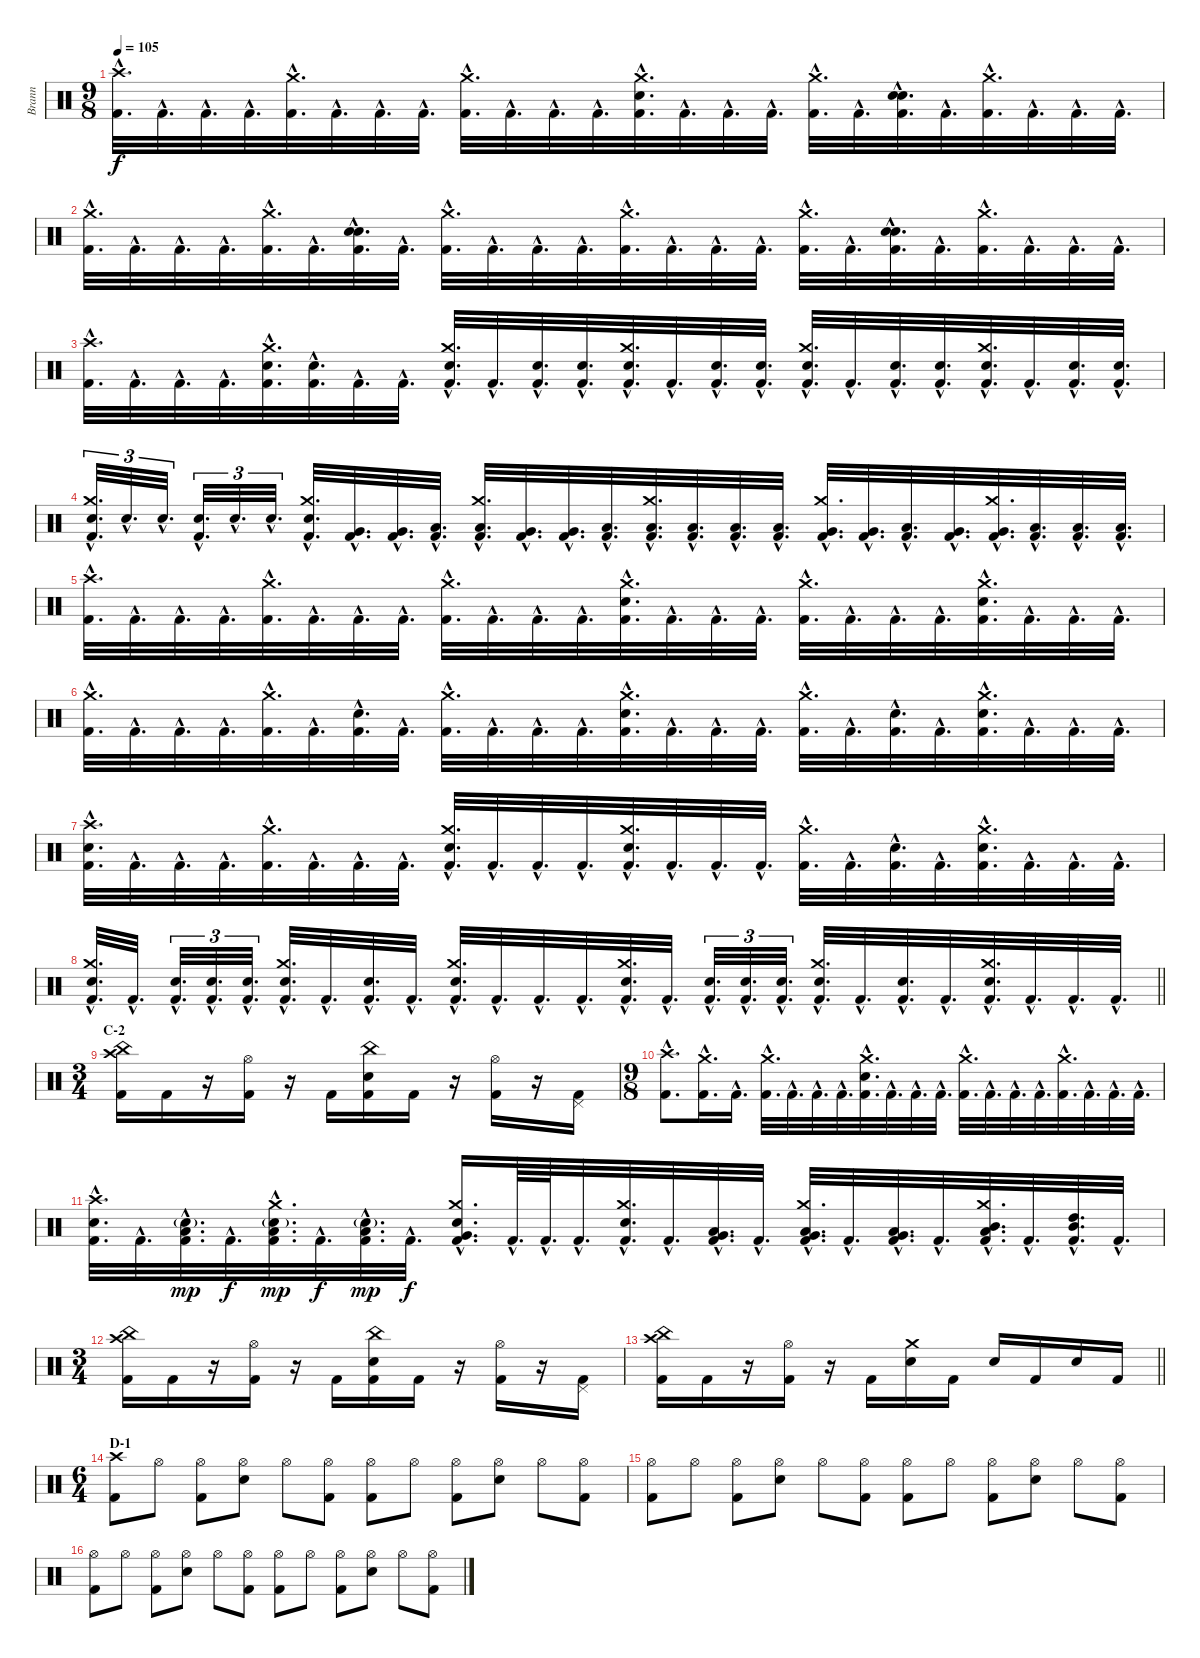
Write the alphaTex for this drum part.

\track ("Brann" "Brann") {instrument percussion}
\staff {score}
\articulation defaults
\ts (9 8)
\tempo 105
\clef neutral
\ks c
("Crash high (hit)"{hac} "Kick (hit) 2"{hac}).32{d dy f} "Kick (hit) 2"{hac}.32{d} "Kick (hit) 2"{hac}.32{d} "Kick (hit) 2"{hac}.32{d} ("Crash medium (hit)"{hac} "Kick (hit) 2"{hac}).32{d} "Kick (hit) 2"{hac}.32{d} "Kick (hit) 2"{hac}.32{d} "Kick (hit) 2"{hac}.32{d} ("Crash medium (hit)"{hac} "Kick (hit) 2"{hac}).32{d} "Kick (hit) 2"{hac}.32{d} "Kick (hit) 2"{hac}.32{d} "Kick (hit) 2"{hac}.32{d} ("Crash medium (hit)"{hac} "Snare (hit) 2"{hac} "Kick (hit) 2"{hac}).32{d} "Kick (hit) 2"{hac}.32{d} "Kick (hit) 2"{hac}.32{d} "Kick (hit) 2"{hac}.32{d} ("Crash medium (hit)"{hac} "Kick (hit) 2"{hac}).32{d} "Kick (hit) 2"{hac}.32{d} ("Electric Snare (hit)"{hac} "Snare (hit) 2"{hac} "Kick (hit) 2"{hac}).32{d} "Kick (hit) 2"{hac}.32{d} ("Crash medium (hit)"{hac} "Kick (hit) 2"{hac}).32{d} "Kick (hit) 2"{hac}.32{d} "Kick (hit) 2"{hac}.32{d} "Kick (hit) 2"{hac}.32{d} |
("Crash medium (hit)"{hac} "Kick (hit) 2"{hac}).32{d} "Kick (hit) 2"{hac}.32{d} "Kick (hit) 2"{hac}.32{d} "Kick (hit) 2"{hac}.32{d} ("Crash medium (hit)"{hac} "Kick (hit) 2"{hac}).32{d} "Kick (hit) 2"{hac}.32{d} ("Electric Snare (hit)"{hac} "Snare (hit) 2"{hac} "Kick (hit) 2"{hac}).32{d} "Kick (hit) 2"{hac}.32{d} ("Crash medium (hit)"{hac} "Kick (hit) 2"{hac}).32{d} "Kick (hit) 2"{hac}.32{d} "Kick (hit) 2"{hac}.32{d} "Kick (hit) 2"{hac}.32{d} ("Crash medium (hit)"{hac} "Kick (hit) 2"{hac}).32{d} "Kick (hit) 2"{hac}.32{d} "Kick (hit) 2"{hac}.32{d} "Kick (hit) 2"{hac}.32{d} ("Crash medium (hit)"{hac} "Kick (hit) 2"{hac}).32{d} "Kick (hit) 2"{hac}.32{d} ("Electric Snare (hit)"{hac} "Snare (hit) 2"{hac} "Kick (hit) 2"{hac}).32{d} "Kick (hit) 2"{hac}.32{d} ("Crash medium (hit)"{hac} "Kick (hit) 2"{hac}).32{d} "Kick (hit) 2"{hac}.32{d} "Kick (hit) 2"{hac}.32{d} "Kick (hit) 2"{hac}.32{d} |
("Crash high (hit)"{hac} "Kick (hit) 2"{hac}).32{d} "Kick (hit) 2"{hac}.32{d} "Kick (hit) 2"{hac}.32{d} "Kick (hit) 2"{hac}.32{d} ("Crash medium (hit)"{hac} "Snare (hit) 2"{hac} "Kick (hit) 2"{hac}).32{d} ("Snare (hit) 2"{hac} "Kick (hit) 2"{hac}).32{d} "Kick (hit) 2"{hac}.32{d} "Kick (hit) 2"{hac}.32{d} ("Crash medium (hit)"{hac} "Snare (hit) 2"{hac} "Kick (hit) 2"{hac}).32{d} "Kick (hit) 2"{hac}.32{d} ("Electric Snare (hit)"{hac} "Kick (hit) 2"{hac}).32{d} ("Electric Snare (hit)"{hac} "Kick (hit) 2"{hac}).32{d} ("Crash medium (hit)"{hac} "Electric Snare (hit)"{hac} "Kick (hit) 2"{hac}).32{d} "Kick (hit) 2"{hac}.32{d} ("Electric Snare (hit)"{hac} "Kick (hit) 2"{hac}).32{d} ("Snare (hit) 2"{hac} "Kick (hit) 2"{hac}).32{d} ("Crash medium (hit)"{hac} "Snare (hit) 2"{hac} "Kick (hit) 2"{hac}).32{d} "Kick (hit) 2"{hac}.32{d} ("Snare (hit) 2"{hac} "Kick (hit) 2"{hac}).32{d} ("Snare (hit) 2"{hac} "Kick (hit) 2"{hac}).32{d} ("Crash medium (hit)"{hac} "Snare (hit) 2"{hac} "Kick (hit) 2"{hac}).32{d} "Kick (hit) 2"{hac}.32{d} ("Snare (hit) 2"{hac} "Kick (hit) 2"{hac}).32{d} ("Snare (hit) 2"{hac} "Kick (hit) 2"{hac}).32{d} |
("Crash medium (hit)"{hac} "Snare (hit) 2"{hac} "Kick (hit) 2"{hac}).32{d tu (3 2)} "Snare (hit) 2"{hac}.32{d tu (3 2)} "Electric Snare (hit)"{hac}.32{d tu (3 2)} ("Electric Snare (hit)"{hac} "Kick (hit) 2"{hac}).32{d tu (3 2)} "Snare (hit) 2"{hac}.32{d tu (3 2)} "Snare (hit) 2"{hac}.32{d tu (3 2)} ("Crash medium (hit)"{hac} "Electric Snare (hit)"{hac} "Kick (hit) 2"{hac}).32{d} ("Very Low Tom (hit)"{hac} "Kick (hit) 2"{hac}).32{d} ("Very Low Tom (hit)"{hac} "Kick (hit) 2"{hac}).32{d} ("Low Tom (hit)"{hac} "Kick (hit) 2"{hac}).32{d} ("Crash medium (hit)"{hac} "Low Tom (hit)"{hac} "Kick (hit) 2"{hac}).32{d} ("Very Low Tom (hit)"{hac} "Kick (hit) 2"{hac}).32{d} ("Very Low Tom (hit)"{hac} "Kick (hit) 2"{hac}).32{d} ("Low Floor Tom (hit)"{hac} "Kick (hit) 2"{hac}).32{d} ("Crash medium (hit)"{hac} "Low Floor Tom (hit)"{hac} "Kick (hit) 2"{hac}).32{d} ("Low Floor Tom (hit)"{hac} "Kick (hit) 2"{hac}).32{d} ("Low Floor Tom (hit)"{hac} "Kick (hit) 2"{hac}).32{d} ("Low Tom (hit)"{hac} "Kick (hit) 2"{hac}).32{d} ("Crash medium (hit)"{hac} "Very Low Tom (hit)"{hac} "Kick (hit) 2"{hac}).32{d} ("Very Low Tom (hit)"{hac} "Kick (hit) 2"{hac}).32{d} ("Low Tom (hit)"{hac} "Kick (hit) 2"{hac}).32{d} ("Very Low Tom (hit)"{hac} "Kick (hit) 2"{hac}).32{d} ("Crash medium (hit)"{hac} "Very Low Tom (hit)"{hac} "Kick (hit) 2"{hac}).32{d} ("Low Floor Tom (hit)"{hac} "Kick (hit) 2"{hac}).32{d} ("Low Floor Tom (hit)"{hac} "Kick (hit) 2"{hac}).32{d} ("Low Floor Tom (hit)"{hac} "Kick (hit) 2"{hac}).32{d} |
("Crash high (hit)"{hac} "Kick (hit) 2"{hac}).32{d} "Kick (hit) 2"{hac}.32{d} "Kick (hit) 2"{hac}.32{d} "Kick (hit) 2"{hac}.32{d} ("Crash medium (hit)"{hac} "Kick (hit) 2"{hac}).32{d} "Kick (hit) 2"{hac}.32{d} "Kick (hit) 2"{hac}.32{d} "Kick (hit) 2"{hac}.32{d} ("Crash medium (hit)"{hac} "Kick (hit) 2"{hac}).32{d} "Kick (hit) 2"{hac}.32{d} "Kick (hit) 2"{hac}.32{d} "Kick (hit) 2"{hac}.32{d} ("Crash medium (hit)"{hac} "Snare (hit) 2"{hac} "Kick (hit) 2"{hac}).32{d} "Kick (hit) 2"{hac}.32{d} "Kick (hit) 2"{hac}.32{d} "Kick (hit) 2"{hac}.32{d} ("Crash medium (hit)"{hac} "Kick (hit) 2"{hac}).32{d} "Kick (hit) 2"{hac}.32{d} "Kick (hit) 2"{hac}.32{d} "Kick (hit) 2"{hac}.32{d} ("Crash medium (hit)"{hac} "Snare (hit) 2"{hac} "Kick (hit) 2"{hac}).32{d} "Kick (hit) 2"{hac}.32{d} "Kick (hit) 2"{hac}.32{d} "Kick (hit) 2"{hac}.32{d} |
("Crash medium (hit)"{hac} "Kick (hit) 2"{hac}).32{d} "Kick (hit) 2"{hac}.32{d} "Kick (hit) 2"{hac}.32{d} "Kick (hit) 2"{hac}.32{d} ("Crash medium (hit)"{hac} "Kick (hit) 2"{hac}).32{d} "Kick (hit) 2"{hac}.32{d} ("Snare (hit) 2"{hac} "Kick (hit) 2"{hac}).32{d} "Kick (hit) 2"{hac}.32{d} ("Crash medium (hit)"{hac} "Kick (hit) 2"{hac}).32{d} "Kick (hit) 2"{hac}.32{d} "Kick (hit) 2"{hac}.32{d} "Kick (hit) 2"{hac}.32{d} ("Crash medium (hit)"{hac} "Snare (hit) 2"{hac} "Kick (hit) 2"{hac}).32{d} "Kick (hit) 2"{hac}.32{d} "Kick (hit) 2"{hac}.32{d} "Kick (hit) 2"{hac}.32{d} ("Crash medium (hit)"{hac} "Kick (hit) 2"{hac}).32{d} "Kick (hit) 2"{hac}.32{d} ("Snare (hit) 2"{hac} "Kick (hit) 2"{hac}).32{d} "Kick (hit) 2"{hac}.32{d} ("Crash medium (hit)"{hac} "Snare (hit) 2"{hac} "Kick (hit) 2"{hac}).32{d} "Kick (hit) 2"{hac}.32{d} "Kick (hit) 2"{hac}.32{d} "Kick (hit) 2"{hac}.32{d} |
("Crash high (hit)"{hac} "Snare (hit) 2"{hac} "Kick (hit) 2"{hac}).32{d} "Kick (hit) 2"{hac}.32{d} "Kick (hit) 2"{hac}.32{d} "Kick (hit) 2"{hac}.32{d} ("Crash medium (hit)"{hac} "Kick (hit) 2"{hac}).32{d} "Kick (hit) 2"{hac}.32{d} "Kick (hit) 2"{hac}.32{d} "Kick (hit) 2"{hac}.32{d} ("Crash medium (hit)"{hac} "Snare (hit) 2"{hac} "Kick (hit) 2"{hac}).32{d} "Kick (hit) 2"{hac}.32{d} "Kick (hit) 2"{hac}.32{d} "Kick (hit) 2"{hac}.32{d} ("Crash medium (hit)"{hac} "Snare (hit) 2"{hac} "Kick (hit) 2"{hac}).32{d} "Kick (hit) 2"{hac}.32{d} "Kick (hit) 2"{hac}.32{d} "Kick (hit) 2"{hac}.32{d} ("Crash medium (hit)"{hac} "Kick (hit) 2"{hac}).32{d} "Kick (hit) 2"{hac}.32{d} ("Snare (hit) 2"{hac} "Kick (hit) 2"{hac}).32{d} "Kick (hit) 2"{hac}.32{d} ("Crash medium (hit)"{hac} "Snare (hit) 2"{hac} "Kick (hit) 2"{hac}).32{d} "Kick (hit) 2"{hac}.32{d} "Kick (hit) 2"{hac}.32{d} "Kick (hit) 2"{hac}.32{d} |
\barLineRight lightlight
("Crash medium (hit)"{hac} "Snare (hit) 2"{hac} "Kick (hit) 2"{hac}).32{d} "Kick (hit) 2"{hac}.32{d} ("Snare (hit) 2"{hac} "Kick (hit) 2"{hac}).32{d tu (3 2)} ("Electric Snare (hit)"{hac} "Kick (hit) 2"{hac}).32{d tu (3 2)} ("Snare (hit) 2"{hac} "Kick (hit) 2"{hac}).32{d tu (3 2)} ("Crash medium (hit)"{hac} "Snare (hit) 2"{hac} "Kick (hit) 2"{hac}).32{d} "Kick (hit) 2"{hac}.32{d} ("Snare (hit) 2"{hac} "Kick (hit) 2"{hac}).32{d} "Kick (hit) 2"{hac}.32{d} ("Crash medium (hit)"{hac} "Snare (hit) 2"{hac} "Kick (hit) 2"{hac}).32{d} "Kick (hit) 2"{hac}.32{d} "Kick (hit) 2"{hac}.32{d} "Kick (hit) 2"{hac}.32{d} ("Crash medium (hit)"{hac} "Snare (hit) 2"{hac} "Kick (hit) 2"{hac}).32{d} "Kick (hit) 2"{hac}.32{d} ("Snare (hit) 2"{hac} "Kick (hit) 2"{hac}).32{d tu (3 2)} ("Electric Snare (hit)"{hac} "Kick (hit) 2"{hac}).32{d tu (3 2)} ("Snare (hit) 2"{hac} "Kick (hit) 2"{hac}).32{d tu (3 2)} ("Crash medium (hit)"{hac} "Snare (hit) 2"{hac} "Kick (hit) 2"{hac}).32{d} "Kick (hit) 2"{hac}.32{d} ("Snare (hit) 2"{hac} "Kick (hit) 2"{hac}).32{d} "Kick (hit) 2"{hac}.32{d} ("Crash medium (hit)"{hac} "Snare (hit) 2"{hac} "Kick (hit) 2"{hac}).32{d} "Kick (hit) 2"{hac}.32{d} "Kick (hit) 2"{hac}.32{d} "Kick (hit) 2"{hac}.32{d} |
\ts (3 4)
\section ("" "C-2")
("Crash high (hit)" "China (hit)" "Kick (hit) 2").16 "Kick (hit) 2".16 r.16 ("Hi-Hat (open)" "Kick (hit) 2").16 r.16 "Kick (hit) 2".16 ("China (hit)" "Snare (hit) 2" "Kick (hit) 2").16 "Kick (hit) 2".16 r.16 ("Hi-Hat (open)" "Kick (hit) 2").16 r.16 ("Pedal Hi-Hat (hit)" "Kick (hit) 2").16 |
\ts (9 8)
("Crash high (hit)"{hac} "Kick (hit) 2"{hac}).8{d} ("Crash medium (hit)"{hac} "Kick (hit) 2"{hac}).16{d} "Kick (hit) 2"{hac}.16{d} ("Crash medium (hit)"{hac} "Kick (hit) 2"{hac}).32{d} "Kick (hit) 2"{hac}.32{d} "Kick (hit) 2"{hac}.32{d} "Kick (hit) 2"{hac}.32{d} ("Crash medium (hit)"{hac} "Snare (hit) 2"{hac} "Kick (hit) 2"{hac}).32{d} "Kick (hit) 2"{hac}.32{d} "Kick (hit) 2"{hac}.32{d} "Kick (hit) 2"{hac}.32{d} ("Crash medium (hit)"{hac} "Kick (hit) 2"{hac}).32{d} "Kick (hit) 2"{hac}.32{d} "Kick (hit) 2"{hac}.32{d} "Kick (hit) 2"{hac}.32{d} ("Crash medium (hit)"{hac} "Kick (hit) 2"{hac}).32{d} "Kick (hit) 2"{hac}.32{d} "Kick (hit) 2"{hac}.32{d} "Kick (hit) 2"{hac}.32{d} |
("Crash high (hit)"{hac} "Snare (hit) 2"{hac} "Kick (hit) 2"{hac}).32{d} "Kick (hit) 2"{hac}.32{d} ("Electric Snare (hit)"{g hac} "Low Tom (hit)"{hac} "Kick (hit) 2"{hac}).32{d dy mp} "Kick (hit) 2"{hac}.32{d dy f} ("Crash medium (hit)"{hac} "Electric Snare (hit)"{g hac} "Low Floor Tom (hit)"{hac} "Kick (hit) 2"{hac}).32{d dy mp} "Kick (hit) 2"{hac}.32{d dy f} ("Electric Snare (hit)"{g hac} "Low Floor Tom (hit)"{hac} "Kick (hit) 2"{hac}).32{d dy mp} "Kick (hit) 2"{hac}.32{d dy f} ("Crash medium (hit)"{hac} "Electric Snare (hit)"{hac} "Very Low Tom (hit)"{hac} "Kick (hit) 2"{hac}).16{d} "Kick (hit) 2"{hac}.64{d} "Kick (hit) 2"{hac}.64{d} "Kick (hit) 2"{hac}.32{d} ("Crash medium (hit)"{hac} "Snare (hit) 2"{hac} "Kick (hit) 2"{hac}).32{d} "Kick (hit) 2"{hac}.32{d} ("Low Tom (hit)"{hac} "Very Low Tom (hit)"{hac} "Kick (hit) 2"{hac}).32{d} "Kick (hit) 2"{hac}.32{d} ("Crash medium (hit)"{hac} "Low Tom (hit)"{hac} "Very Low Tom (hit)"{hac} "Kick (hit) 2"{hac}).32{d} "Kick (hit) 2"{hac}.32{d} ("Low Tom (hit)"{hac} "Very Low Tom (hit)"{hac} "Kick (hit) 2"{hac}).32{d} "Kick (hit) 2"{hac}.32{d} ("Crash medium (hit)"{hac} "Mid Tom (hit)"{hac} "Low Tom (hit)"{hac} "Kick (hit) 2"{hac}).32{d} "Kick (hit) 2"{hac}.32{d} ("High Tom (hit)"{hac} "Mid Tom (hit)"{hac} "Kick (hit) 2"{hac}).32{d} "Kick (hit) 2"{hac}.32{d} |
\ts (3 4)
("Crash high (hit)" "China (hit)" "Kick (hit) 2").16 "Kick (hit) 2".16 r.16 ("Hi-Hat (open)" "Kick (hit) 2").16 r.16 "Kick (hit) 2".16 ("China (hit)" "Snare (hit) 2" "Kick (hit) 2").16 "Kick (hit) 2".16 r.16 ("Hi-Hat (open)" "Kick (hit) 2").16 r.16 ("Pedal Hi-Hat (hit)" "Kick (hit) 2").16 |
\barLineRight lightlight
("Crash high (hit)" "China (hit)" "Kick (hit) 2").16 "Kick (hit) 2".16 r.16 ("Hi-Hat (open)" "Kick (hit) 2").16 r.16 "Kick (hit) 2".16 ("Crash medium (hit)" "Snare (hit) 2").16 "Kick (hit) 2".16 "Snare (hit) 2".16 "Kick (hit) 2".16 "Snare (hit) 2".16 "Kick (hit) 2".16 |
\ts (6 4)
\section ("" "D-1")
("Crash high (hit)" "Kick (hit) 2").8 "Hi-Hat (open)".8 ("Hi-Hat (open)" "Kick (hit) 2").8 ("Hi-Hat (open)" "Snare (hit) 2").8 "Hi-Hat (open)".8 ("Hi-Hat (open)" "Kick (hit) 2").8 ("Hi-Hat (open)" "Kick (hit) 2").8 "Hi-Hat (open)".8 ("Hi-Hat (open)" "Kick (hit) 2").8 ("Hi-Hat (open)" "Snare (hit) 2").8 "Hi-Hat (open)".8 ("Hi-Hat (open)" "Kick (hit) 2").8 |
("Hi-Hat (open)" "Kick (hit) 2").8 "Hi-Hat (open)".8 ("Hi-Hat (open)" "Kick (hit) 2").8 ("Hi-Hat (open)" "Snare (hit) 2").8 "Hi-Hat (open)".8 ("Hi-Hat (open)" "Kick (hit) 2").8 ("Hi-Hat (open)" "Kick (hit) 2").8 "Hi-Hat (open)".8 ("Hi-Hat (open)" "Kick (hit) 2").8 ("Hi-Hat (open)" "Snare (hit) 2").8 "Hi-Hat (open)".8 ("Hi-Hat (open)" "Kick (hit) 2").8 |
("Hi-Hat (open)" "Kick (hit) 2").8 "Hi-Hat (open)".8 ("Hi-Hat (open)" "Kick (hit) 2").8 ("Hi-Hat (open)" "Snare (hit) 2").8 "Hi-Hat (open)".8 ("Hi-Hat (open)" "Kick (hit) 2").8 ("Hi-Hat (open)" "Kick (hit) 2").8 "Hi-Hat (open)".8 ("Hi-Hat (open)" "Kick (hit) 2").8 ("Hi-Hat (open)" "Snare (hit) 2").8 "Hi-Hat (open)".8 ("Hi-Hat (open)" "Kick (hit) 2").8
